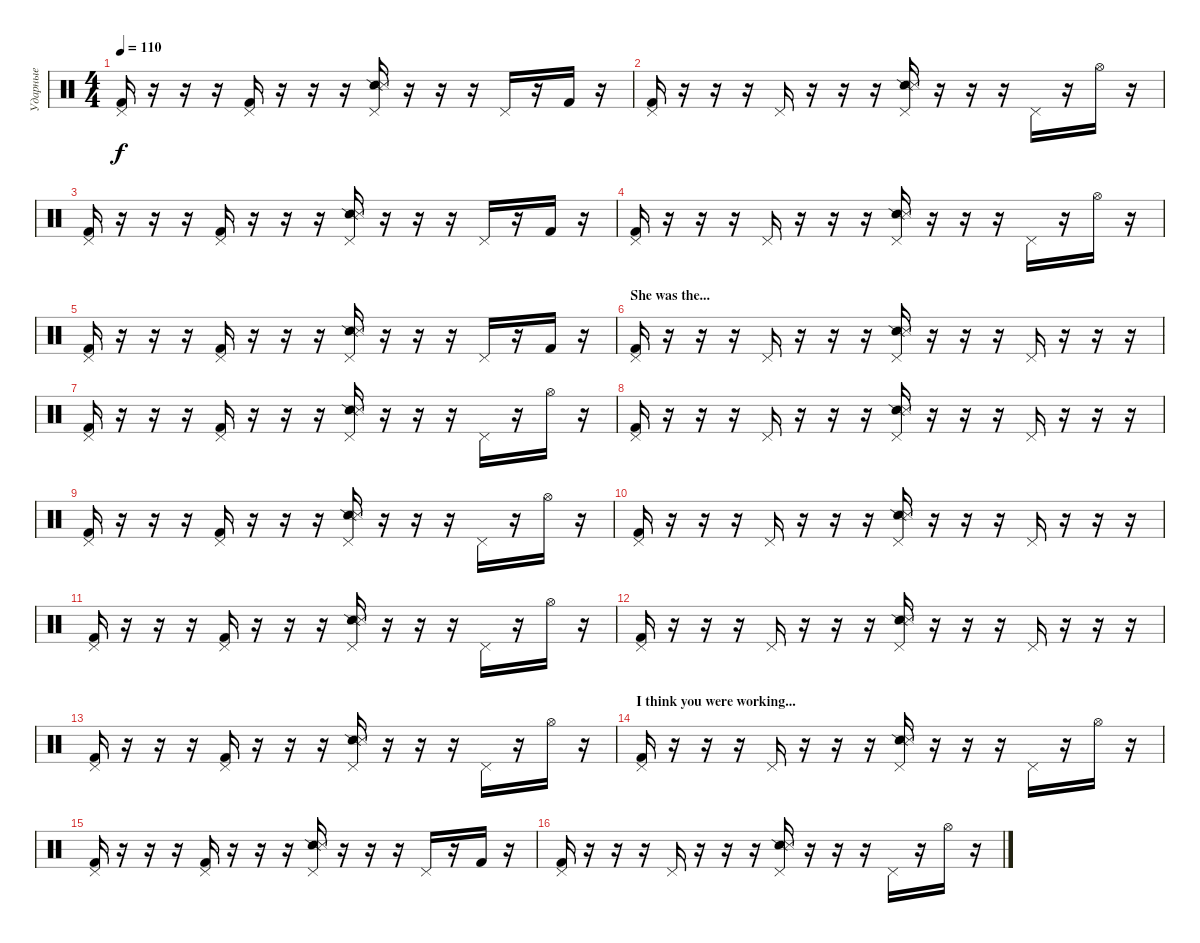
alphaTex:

\track ("Ударные" "Ударные") {instrument percussion}
\staff {score}
\articulation defaults
\ts (4 4)
\tempo 110
\clef neutral
\ks c
("Pedal Hi-Hat (hit)" "Kick (hit) 2").16{dy f} r.16 r.16 r.16 ("Pedal Hi-Hat (hit)" "Kick (hit) 2").16 r.16 r.16 r.16 ("Pedal Hi-Hat (hit)" "Snare (side stick) 2" "Metronome (hit)").16 r.16 r.16 r.16 "Pedal Hi-Hat (hit)".16 r.16 "Kick (hit) 2".16 r.16 |
("Pedal Hi-Hat (hit)" "Kick (hit) 2").16 r.16 r.16 r.16 "Pedal Hi-Hat (hit)".16 r.16 r.16 r.16 ("Pedal Hi-Hat (hit)" "Snare (side stick) 2" "Metronome (hit)").16 r.16 r.16 r.16 "Pedal Hi-Hat (hit)".16 r.16 "Hi-Hat (open)".16 r.16 |
("Pedal Hi-Hat (hit)" "Kick (hit) 2").16 r.16 r.16 r.16 ("Pedal Hi-Hat (hit)" "Kick (hit) 2").16 r.16 r.16 r.16 ("Pedal Hi-Hat (hit)" "Snare (side stick) 2" "Metronome (hit)").16 r.16 r.16 r.16 "Pedal Hi-Hat (hit)".16 r.16 "Kick (hit) 2".16 r.16 |
("Pedal Hi-Hat (hit)" "Kick (hit) 2").16 r.16 r.16 r.16 "Pedal Hi-Hat (hit)".16 r.16 r.16 r.16 ("Pedal Hi-Hat (hit)" "Snare (side stick) 2" "Metronome (hit)").16 r.16 r.16 r.16 "Pedal Hi-Hat (hit)".16 r.16 "Hi-Hat (open)".16 r.16 |
("Pedal Hi-Hat (hit)" "Kick (hit) 2").16 r.16 r.16 r.16 ("Pedal Hi-Hat (hit)" "Kick (hit) 2").16 r.16 r.16 r.16 ("Pedal Hi-Hat (hit)" "Snare (side stick) 2" "Metronome (hit)").16 r.16 r.16 r.16 "Pedal Hi-Hat (hit)".16 r.16 "Kick (hit) 2".16 r.16 |
\section ("" "She was the...")
("Pedal Hi-Hat (hit)" "Kick (hit) 2").16 r.16 r.16 r.16 "Pedal Hi-Hat (hit)".16 r.16 r.16 r.16 ("Pedal Hi-Hat (hit)" "Snare (side stick) 2" "Metronome (hit)").16 r.16 r.16 r.16 "Pedal Hi-Hat (hit)".16 r.16 r.16 r.16 |
("Pedal Hi-Hat (hit)" "Kick (hit) 2").16 r.16 r.16 r.16 ("Pedal Hi-Hat (hit)" "Kick (hit) 2").16 r.16 r.16 r.16 ("Pedal Hi-Hat (hit)" "Snare (side stick) 2" "Metronome (hit)").16 r.16 r.16 r.16 "Pedal Hi-Hat (hit)".16 r.16 "Hi-Hat (open)".16 r.16 |
("Pedal Hi-Hat (hit)" "Kick (hit) 2").16 r.16 r.16 r.16 "Pedal Hi-Hat (hit)".16 r.16 r.16 r.16 ("Pedal Hi-Hat (hit)" "Snare (side stick) 2" "Metronome (hit)").16 r.16 r.16 r.16 "Pedal Hi-Hat (hit)".16 r.16 r.16 r.16 |
("Pedal Hi-Hat (hit)" "Kick (hit) 2").16 r.16 r.16 r.16 ("Pedal Hi-Hat (hit)" "Kick (hit) 2").16 r.16 r.16 r.16 ("Pedal Hi-Hat (hit)" "Snare (side stick) 2" "Metronome (hit)").16 r.16 r.16 r.16 "Pedal Hi-Hat (hit)".16 r.16 "Hi-Hat (open)".16 r.16 |
("Pedal Hi-Hat (hit)" "Kick (hit) 2").16 r.16 r.16 r.16 "Pedal Hi-Hat (hit)".16 r.16 r.16 r.16 ("Pedal Hi-Hat (hit)" "Snare (side stick) 2" "Metronome (hit)").16 r.16 r.16 r.16 "Pedal Hi-Hat (hit)".16 r.16 r.16 r.16 |
("Pedal Hi-Hat (hit)" "Kick (hit) 2").16 r.16 r.16 r.16 ("Pedal Hi-Hat (hit)" "Kick (hit) 2").16 r.16 r.16 r.16 ("Pedal Hi-Hat (hit)" "Snare (side stick) 2" "Metronome (hit)").16 r.16 r.16 r.16 "Pedal Hi-Hat (hit)".16 r.16 "Hi-Hat (open)".16 r.16 |
("Pedal Hi-Hat (hit)" "Kick (hit) 2").16 r.16 r.16 r.16 "Pedal Hi-Hat (hit)".16 r.16 r.16 r.16 ("Pedal Hi-Hat (hit)" "Snare (side stick) 2" "Metronome (hit)").16 r.16 r.16 r.16 "Pedal Hi-Hat (hit)".16 r.16 r.16 r.16 |
("Pedal Hi-Hat (hit)" "Kick (hit) 2").16 r.16 r.16 r.16 ("Pedal Hi-Hat (hit)" "Kick (hit) 2").16 r.16 r.16 r.16 ("Pedal Hi-Hat (hit)" "Snare (side stick) 2" "Metronome (hit)").16 r.16 r.16 r.16 "Pedal Hi-Hat (hit)".16 r.16 "Hi-Hat (open)".16 r.16 |
\section ("" "I think you were working...")
("Pedal Hi-Hat (hit)" "Kick (hit) 2").16 r.16 r.16 r.16 "Pedal Hi-Hat (hit)".16 r.16 r.16 r.16 ("Pedal Hi-Hat (hit)" "Snare (side stick) 2" "Metronome (hit)").16 r.16 r.16 r.16 "Pedal Hi-Hat (hit)".16 r.16 "Hi-Hat (open)".16 r.16 |
("Pedal Hi-Hat (hit)" "Kick (hit) 2").16 r.16 r.16 r.16 ("Pedal Hi-Hat (hit)" "Kick (hit) 2").16 r.16 r.16 r.16 ("Pedal Hi-Hat (hit)" "Snare (side stick) 2" "Metronome (hit)").16 r.16 r.16 r.16 "Pedal Hi-Hat (hit)".16 r.16 "Kick (hit) 2".16 r.16 |
("Pedal Hi-Hat (hit)" "Kick (hit) 2").16 r.16 r.16 r.16 "Pedal Hi-Hat (hit)".16 r.16 r.16 r.16 ("Pedal Hi-Hat (hit)" "Snare (side stick) 2" "Metronome (hit)").16 r.16 r.16 r.16 "Pedal Hi-Hat (hit)".16 r.16 "Hi-Hat (open)".16 r.16
